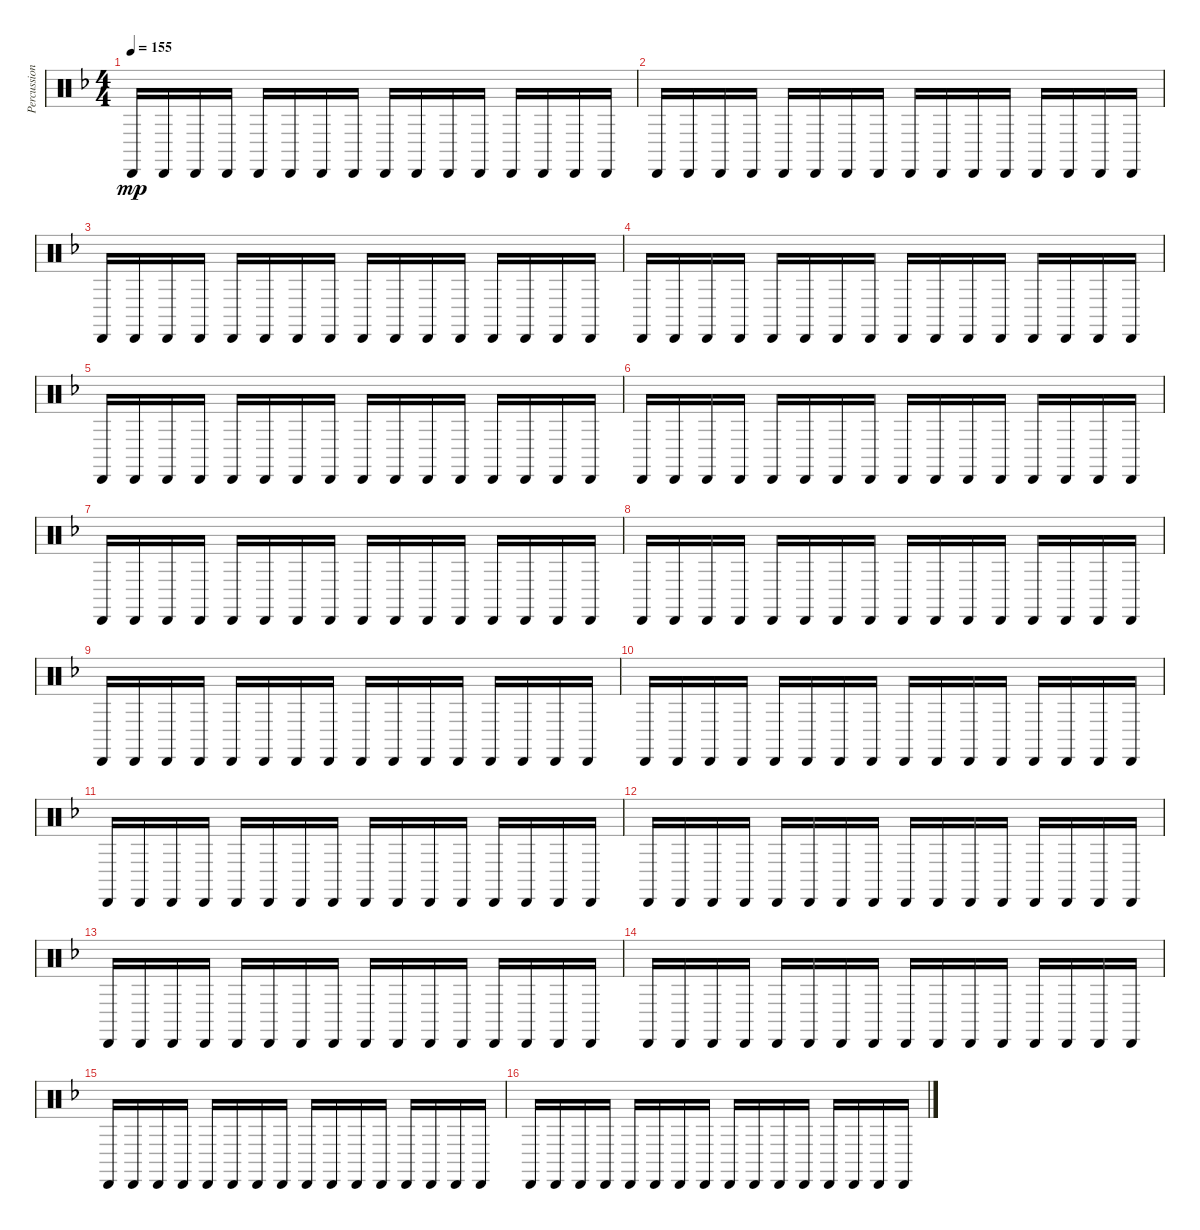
\track ("Percussion" "Percussion") {instrument percussion}
\staff {score}
\articulation defaults
\ts (4 4)
\tempo 155
\clef neutral
\ks dminor "Cabasa (hit)".16{dy mp} "Cabasa (hit)".16 "Cabasa (hit)".16 "Cabasa (hit)".16 "Cabasa (hit)".16 "Cabasa (hit)".16 "Cabasa (hit)".16 "Cabasa (hit)".16 "Cabasa (hit)".16 "Cabasa (hit)".16 "Cabasa (hit)".16 "Cabasa (hit)".16 "Cabasa (hit)".16 "Cabasa (hit)".16 "Cabasa (hit)".16 "Cabasa (hit)".16
|
"Cabasa (hit)".16 "Cabasa (hit)".16 "Cabasa (hit)".16 "Cabasa (hit)".16 "Cabasa (hit)".16 "Cabasa (hit)".16 "Cabasa (hit)".16 "Cabasa (hit)".16 "Cabasa (hit)".16 "Cabasa (hit)".16 "Cabasa (hit)".16 "Cabasa (hit)".16 "Cabasa (hit)".16 "Cabasa (hit)".16 "Cabasa (hit)".16 "Cabasa (hit)".16 |
"Cabasa (hit)".16 "Cabasa (hit)".16 "Cabasa (hit)".16 "Cabasa (hit)".16 "Cabasa (hit)".16 "Cabasa (hit)".16 "Cabasa (hit)".16 "Cabasa (hit)".16 "Cabasa (hit)".16 "Cabasa (hit)".16 "Cabasa (hit)".16 "Cabasa (hit)".16 "Cabasa (hit)".16 "Cabasa (hit)".16 "Cabasa (hit)".16 "Cabasa (hit)".16 |
"Cabasa (hit)".16 "Cabasa (hit)".16 "Cabasa (hit)".16 "Cabasa (hit)".16 "Cabasa (hit)".16 "Cabasa (hit)".16 "Cabasa (hit)".16 "Cabasa (hit)".16 "Cabasa (hit)".16 "Cabasa (hit)".16 "Cabasa (hit)".16 "Cabasa (hit)".16 "Cabasa (hit)".16 "Cabasa (hit)".16 "Cabasa (hit)".16 "Cabasa (hit)".16 |
"Cabasa (hit)".16 "Cabasa (hit)".16 "Cabasa (hit)".16 "Cabasa (hit)".16 "Cabasa (hit)".16 "Cabasa (hit)".16 "Cabasa (hit)".16 "Cabasa (hit)".16 "Cabasa (hit)".16 "Cabasa (hit)".16 "Cabasa (hit)".16 "Cabasa (hit)".16 "Cabasa (hit)".16 "Cabasa (hit)".16 "Cabasa (hit)".16 "Cabasa (hit)".16 |
"Cabasa (hit)".16 "Cabasa (hit)".16 "Cabasa (hit)".16 "Cabasa (hit)".16 "Cabasa (hit)".16 "Cabasa (hit)".16 "Cabasa (hit)".16 "Cabasa (hit)".16 "Cabasa (hit)".16 "Cabasa (hit)".16 "Cabasa (hit)".16 "Cabasa (hit)".16 "Cabasa (hit)".16 "Cabasa (hit)".16 "Cabasa (hit)".16 "Cabasa (hit)".16 |
"Cabasa (hit)".16 "Cabasa (hit)".16 "Cabasa (hit)".16 "Cabasa (hit)".16 "Cabasa (hit)".16 "Cabasa (hit)".16 "Cabasa (hit)".16 "Cabasa (hit)".16 "Cabasa (hit)".16 "Cabasa (hit)".16 "Cabasa (hit)".16 "Cabasa (hit)".16 "Cabasa (hit)".16 "Cabasa (hit)".16 "Cabasa (hit)".16 "Cabasa (hit)".16 |
"Cabasa (hit)".16 "Cabasa (hit)".16 "Cabasa (hit)".16 "Cabasa (hit)".16 "Cabasa (hit)".16 "Cabasa (hit)".16 "Cabasa (hit)".16 "Cabasa (hit)".16 "Cabasa (hit)".16 "Cabasa (hit)".16 "Cabasa (hit)".16 "Cabasa (hit)".16 "Cabasa (hit)".16 "Cabasa (hit)".16 "Cabasa (hit)".16 "Cabasa (hit)".16 |
"Cabasa (hit)".16 "Cabasa (hit)".16 "Cabasa (hit)".16 "Cabasa (hit)".16 "Cabasa (hit)".16 "Cabasa (hit)".16 "Cabasa (hit)".16 "Cabasa (hit)".16 "Cabasa (hit)".16 "Cabasa (hit)".16 "Cabasa (hit)".16 "Cabasa (hit)".16 "Cabasa (hit)".16 "Cabasa (hit)".16 "Cabasa (hit)".16 "Cabasa (hit)".16 |
"Cabasa (hit)".16 "Cabasa (hit)".16 "Cabasa (hit)".16 "Cabasa (hit)".16 "Cabasa (hit)".16 "Cabasa (hit)".16 "Cabasa (hit)".16 "Cabasa (hit)".16 "Cabasa (hit)".16 "Cabasa (hit)".16 "Cabasa (hit)".16 "Cabasa (hit)".16 "Cabasa (hit)".16 "Cabasa (hit)".16 "Cabasa (hit)".16 "Cabasa (hit)".16 |
"Cabasa (hit)".16 "Cabasa (hit)".16 "Cabasa (hit)".16 "Cabasa (hit)".16 "Cabasa (hit)".16 "Cabasa (hit)".16 "Cabasa (hit)".16 "Cabasa (hit)".16 "Cabasa (hit)".16 "Cabasa (hit)".16 "Cabasa (hit)".16 "Cabasa (hit)".16 "Cabasa (hit)".16 "Cabasa (hit)".16 "Cabasa (hit)".16 "Cabasa (hit)".16 |
"Cabasa (hit)".16 "Cabasa (hit)".16 "Cabasa (hit)".16 "Cabasa (hit)".16 "Cabasa (hit)".16 "Cabasa (hit)".16 "Cabasa (hit)".16 "Cabasa (hit)".16 "Cabasa (hit)".16 "Cabasa (hit)".16 "Cabasa (hit)".16 "Cabasa (hit)".16 "Cabasa (hit)".16 "Cabasa (hit)".16 "Cabasa (hit)".16 "Cabasa (hit)".16 |
"Cabasa (hit)".16 "Cabasa (hit)".16 "Cabasa (hit)".16 "Cabasa (hit)".16 "Cabasa (hit)".16 "Cabasa (hit)".16 "Cabasa (hit)".16 "Cabasa (hit)".16 "Cabasa (hit)".16 "Cabasa (hit)".16 "Cabasa (hit)".16 "Cabasa (hit)".16 "Cabasa (hit)".16 "Cabasa (hit)".16 "Cabasa (hit)".16 "Cabasa (hit)".16 |
"Cabasa (hit)".16 "Cabasa (hit)".16 "Cabasa (hit)".16 "Cabasa (hit)".16 "Cabasa (hit)".16 "Cabasa (hit)".16 "Cabasa (hit)".16 "Cabasa (hit)".16 "Cabasa (hit)".16 "Cabasa (hit)".16 "Cabasa (hit)".16 "Cabasa (hit)".16 "Cabasa (hit)".16 "Cabasa (hit)".16 "Cabasa (hit)".16 "Cabasa (hit)".16 |
"Cabasa (hit)".16 "Cabasa (hit)".16 "Cabasa (hit)".16 "Cabasa (hit)".16 "Cabasa (hit)".16 "Cabasa (hit)".16 "Cabasa (hit)".16 "Cabasa (hit)".16 "Cabasa (hit)".16 "Cabasa (hit)".16 "Cabasa (hit)".16 "Cabasa (hit)".16 "Cabasa (hit)".16 "Cabasa (hit)".16 "Cabasa (hit)".16 "Cabasa (hit)".16 |
"Cabasa (hit)".16 "Cabasa (hit)".16 "Cabasa (hit)".16 "Cabasa (hit)".16 "Cabasa (hit)".16 "Cabasa (hit)".16 "Cabasa (hit)".16 "Cabasa (hit)".16 "Cabasa (hit)".16 "Cabasa (hit)".16 "Cabasa (hit)".16 "Cabasa (hit)".16 "Cabasa (hit)".16 "Cabasa (hit)".16 "Cabasa (hit)".16 "Cabasa (hit)".16
